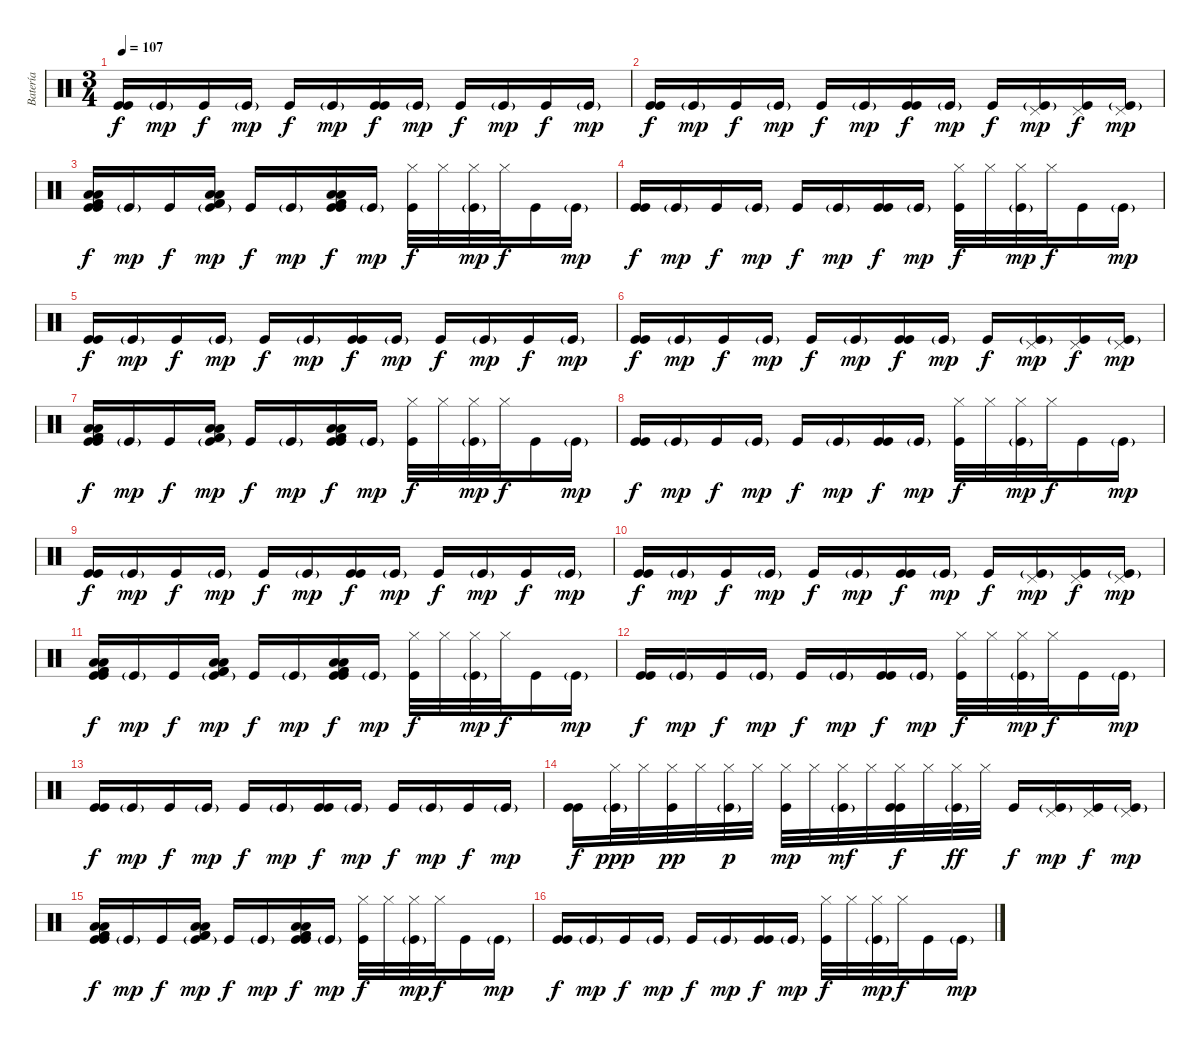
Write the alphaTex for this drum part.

\track ("Batería" "Batería") {instrument percussion}
\staff {score}
\articulation defaults
\ts (3 4)
\tempo 107
\clef neutral
\ks c
("Kick (hit)" "Kick (hit)").16{dy f} "Kick (hit)"{g}.16{dy mp} "Kick (hit)".16{dy f} "Kick (hit)"{g}.16{dy mp} "Kick (hit)".16{dy f} "Kick (hit)"{g}.16{dy mp} ("Kick (hit)" "Kick (hit)").16{dy f} "Kick (hit)"{g}.16{dy mp} "Kick (hit)".16{dy f} "Kick (hit)"{g}.16{dy mp} "Kick (hit)".16{dy f} "Kick (hit)"{g}.16{dy mp} |
("Kick (hit)" "Kick (hit)").16{dy f} "Kick (hit)"{g}.16{dy mp} "Kick (hit)".16{dy f} "Kick (hit)"{g}.16{dy mp} "Kick (hit)".16{dy f} "Kick (hit)"{g}.16{dy mp} ("Kick (hit)" "Kick (hit)").16{dy f} "Kick (hit)"{g}.16{dy mp} "Kick (hit)".16{dy f} ("Kick (hit)"{g} "Pedal Hi-Hat (hit)").16{dy mp} ("Kick (hit)" "Pedal Hi-Hat (hit)").16{dy f} ("Kick (hit)"{g} "Pedal Hi-Hat (hit)").16{dy mp} |
("Kick (hit)" "Kick (hit)" "Low Floor Tom (hit)" "Low Floor Tom (hit)" "Kick (hit) 2" "Kick (hit) 2").16{dy f} "Kick (hit)"{g}.16{dy mp} "Kick (hit)".16{dy f} ("Kick (hit)"{g} "Low Floor Tom (hit)" "Low Floor Tom (hit)" "Kick (hit) 2" "Kick (hit) 2").16{dy mp} "Kick (hit)".16{dy f} "Kick (hit)"{g}.16{dy mp} ("Kick (hit)" "Kick (hit)" "Low Floor Tom (hit)" "Low Floor Tom (hit)" "Kick (hit) 2" "Kick (hit) 2").16{dy f} "Kick (hit)"{g}.16{dy mp} ("Kick (hit)" "Hi-Hat (closed)").32{dy f} "Hi-Hat (closed)".32 ("Kick (hit)"{g} "Hi-Hat (closed)").32{dy mp} "Hi-Hat (closed)".32{dy f} "Kick (hit)".16 "Kick (hit)"{g}.16{dy mp} |
("Kick (hit)" "Kick (hit)").16{dy f} "Kick (hit)"{g}.16{dy mp} "Kick (hit)".16{dy f} "Kick (hit)"{g}.16{dy mp} "Kick (hit)".16{dy f} "Kick (hit)"{g}.16{dy mp} ("Kick (hit)" "Kick (hit)").16{dy f} "Kick (hit)"{g}.16{dy mp} ("Kick (hit)" "Hi-Hat (closed)").32{dy f} "Hi-Hat (closed)".32 ("Kick (hit)"{g} "Hi-Hat (closed)").32{dy mp} "Hi-Hat (closed)".32{dy f} "Kick (hit)".16 "Kick (hit)"{g}.16{dy mp} |
("Kick (hit)" "Kick (hit)").16{dy f} "Kick (hit)"{g}.16{dy mp} "Kick (hit)".16{dy f} "Kick (hit)"{g}.16{dy mp} "Kick (hit)".16{dy f} "Kick (hit)"{g}.16{dy mp} ("Kick (hit)" "Kick (hit)").16{dy f} "Kick (hit)"{g}.16{dy mp} "Kick (hit)".16{dy f} "Kick (hit)"{g}.16{dy mp} "Kick (hit)".16{dy f} "Kick (hit)"{g}.16{dy mp} |
("Kick (hit)" "Kick (hit)").16{dy f} "Kick (hit)"{g}.16{dy mp} "Kick (hit)".16{dy f} "Kick (hit)"{g}.16{dy mp} "Kick (hit)".16{dy f} "Kick (hit)"{g}.16{dy mp} ("Kick (hit)" "Kick (hit)").16{dy f} "Kick (hit)"{g}.16{dy mp} "Kick (hit)".16{dy f} ("Kick (hit)"{g} "Pedal Hi-Hat (hit)").16{dy mp} ("Kick (hit)" "Pedal Hi-Hat (hit)").16{dy f} ("Kick (hit)"{g} "Pedal Hi-Hat (hit)").16{dy mp} |
("Kick (hit)" "Kick (hit)" "Low Floor Tom (hit)" "Low Floor Tom (hit)" "Kick (hit) 2" "Kick (hit) 2").16{dy f} "Kick (hit)"{g}.16{dy mp} "Kick (hit)".16{dy f} ("Kick (hit)"{g} "Low Floor Tom (hit)" "Low Floor Tom (hit)" "Kick (hit) 2" "Kick (hit) 2").16{dy mp} "Kick (hit)".16{dy f} "Kick (hit)"{g}.16{dy mp} ("Kick (hit)" "Kick (hit)" "Low Floor Tom (hit)" "Low Floor Tom (hit)" "Kick (hit) 2" "Kick (hit) 2").16{dy f} "Kick (hit)"{g}.16{dy mp} ("Kick (hit)" "Hi-Hat (closed)").32{dy f} "Hi-Hat (closed)".32 ("Kick (hit)"{g} "Hi-Hat (closed)").32{dy mp} "Hi-Hat (closed)".32{dy f} "Kick (hit)".16 "Kick (hit)"{g}.16{dy mp} |
("Kick (hit)" "Kick (hit)").16{dy f} "Kick (hit)"{g}.16{dy mp} "Kick (hit)".16{dy f} "Kick (hit)"{g}.16{dy mp} "Kick (hit)".16{dy f} "Kick (hit)"{g}.16{dy mp} ("Kick (hit)" "Kick (hit)").16{dy f} "Kick (hit)"{g}.16{dy mp} ("Kick (hit)" "Hi-Hat (closed)").32{dy f} "Hi-Hat (closed)".32 ("Kick (hit)"{g} "Hi-Hat (closed)").32{dy mp} "Hi-Hat (closed)".32{dy f} "Kick (hit)".16 "Kick (hit)"{g}.16{dy mp} |
("Kick (hit)" "Kick (hit)").16{dy f} "Kick (hit)"{g}.16{dy mp} "Kick (hit)".16{dy f} "Kick (hit)"{g}.16{dy mp} "Kick (hit)".16{dy f} "Kick (hit)"{g}.16{dy mp} ("Kick (hit)" "Kick (hit)").16{dy f} "Kick (hit)"{g}.16{dy mp} "Kick (hit)".16{dy f} "Kick (hit)"{g}.16{dy mp} "Kick (hit)".16{dy f} "Kick (hit)"{g}.16{dy mp} |
("Kick (hit)" "Kick (hit)").16{dy f} "Kick (hit)"{g}.16{dy mp} "Kick (hit)".16{dy f} "Kick (hit)"{g}.16{dy mp} "Kick (hit)".16{dy f} "Kick (hit)"{g}.16{dy mp} ("Kick (hit)" "Kick (hit)").16{dy f} "Kick (hit)"{g}.16{dy mp} "Kick (hit)".16{dy f} ("Kick (hit)"{g} "Pedal Hi-Hat (hit)").16{dy mp} ("Kick (hit)" "Pedal Hi-Hat (hit)").16{dy f} ("Kick (hit)"{g} "Pedal Hi-Hat (hit)").16{dy mp} |
("Kick (hit)" "Kick (hit)" "Low Floor Tom (hit)" "Low Floor Tom (hit)" "Kick (hit) 2" "Kick (hit) 2").16{dy f} "Kick (hit)"{g}.16{dy mp} "Kick (hit)".16{dy f} ("Kick (hit)"{g} "Low Floor Tom (hit)" "Low Floor Tom (hit)" "Kick (hit) 2" "Kick (hit) 2").16{dy mp} "Kick (hit)".16{dy f} "Kick (hit)"{g}.16{dy mp} ("Kick (hit)" "Kick (hit)" "Low Floor Tom (hit)" "Low Floor Tom (hit)" "Kick (hit) 2" "Kick (hit) 2").16{dy f} "Kick (hit)"{g}.16{dy mp} ("Kick (hit)" "Hi-Hat (closed)").32{dy f} "Hi-Hat (closed)".32 ("Kick (hit)"{g} "Hi-Hat (closed)").32{dy mp} "Hi-Hat (closed)".32{dy f} "Kick (hit)".16 "Kick (hit)"{g}.16{dy mp} |
("Kick (hit)" "Kick (hit)").16{dy f} "Kick (hit)"{g}.16{dy mp} "Kick (hit)".16{dy f} "Kick (hit)"{g}.16{dy mp} "Kick (hit)".16{dy f} "Kick (hit)"{g}.16{dy mp} ("Kick (hit)" "Kick (hit)").16{dy f} "Kick (hit)"{g}.16{dy mp} ("Kick (hit)" "Hi-Hat (closed)").32{dy f} "Hi-Hat (closed)".32 ("Kick (hit)"{g} "Hi-Hat (closed)").32{dy mp} "Hi-Hat (closed)".32{dy f} "Kick (hit)".16 "Kick (hit)"{g}.16{dy mp} |
("Kick (hit)" "Kick (hit)").16{dy f} "Kick (hit)"{g}.16{dy mp} "Kick (hit)".16{dy f} "Kick (hit)"{g}.16{dy mp} "Kick (hit)".16{dy f} "Kick (hit)"{g}.16{dy mp} ("Kick (hit)" "Kick (hit)").16{dy f} "Kick (hit)"{g}.16{dy mp} "Kick (hit)".16{dy f} "Kick (hit)"{g}.16{dy mp} "Kick (hit)".16{dy f} "Kick (hit)"{g}.16{dy mp} |
("Kick (hit)" "Kick (hit)").16{dy f} ("Kick (hit)"{g} "Hi-Hat (closed)").32{dy ppp} "Hi-Hat (closed)".32 ("Kick (hit)" "Hi-Hat (closed)").32{dy pp} "Hi-Hat (closed)".32 ("Kick (hit)"{g} "Hi-Hat (closed)").32{dy p} "Hi-Hat (closed)".32 ("Kick (hit)" "Hi-Hat (closed)").32{dy mp} "Hi-Hat (closed)".32 ("Kick (hit)"{g} "Hi-Hat (closed)").32{dy mf} "Hi-Hat (closed)".32 ("Kick (hit)" "Kick (hit)" "Hi-Hat (closed)").32{dy f} "Hi-Hat (closed)".32 ("Kick (hit)"{g} "Hi-Hat (closed)").32{dy ff} "Hi-Hat (closed)".32 "Kick (hit)".16{dy f} ("Kick (hit)"{g} "Pedal Hi-Hat (hit)").16{dy mp} ("Kick (hit)" "Pedal Hi-Hat (hit)").16{dy f} ("Kick (hit)"{g} "Pedal Hi-Hat (hit)").16{dy mp} |
("Kick (hit)" "Kick (hit)" "Low Floor Tom (hit)" "Low Floor Tom (hit)" "Kick (hit) 2" "Kick (hit) 2").16{dy f} "Kick (hit)"{g}.16{dy mp} "Kick (hit)".16{dy f} ("Kick (hit)"{g} "Low Floor Tom (hit)" "Low Floor Tom (hit)" "Kick (hit) 2" "Kick (hit) 2").16{dy mp} "Kick (hit)".16{dy f} "Kick (hit)"{g}.16{dy mp} ("Kick (hit)" "Kick (hit)" "Low Floor Tom (hit)" "Low Floor Tom (hit)" "Kick (hit) 2" "Kick (hit) 2").16{dy f} "Kick (hit)"{g}.16{dy mp} ("Kick (hit)" "Hi-Hat (closed)").32{dy f} "Hi-Hat (closed)".32 ("Kick (hit)"{g} "Hi-Hat (closed)").32{dy mp} "Hi-Hat (closed)".32{dy f} "Kick (hit)".16 "Kick (hit)"{g}.16{dy mp} |
("Kick (hit)" "Kick (hit)").16{dy f} "Kick (hit)"{g}.16{dy mp} "Kick (hit)".16{dy f} "Kick (hit)"{g}.16{dy mp} "Kick (hit)".16{dy f} "Kick (hit)"{g}.16{dy mp} ("Kick (hit)" "Kick (hit)").16{dy f} "Kick (hit)"{g}.16{dy mp} ("Kick (hit)" "Hi-Hat (closed)").32{dy f} "Hi-Hat (closed)".32 ("Kick (hit)"{g} "Hi-Hat (closed)").32{dy mp} "Hi-Hat (closed)".32{dy f} "Kick (hit)".16 "Kick (hit)"{g}.16{dy mp}
